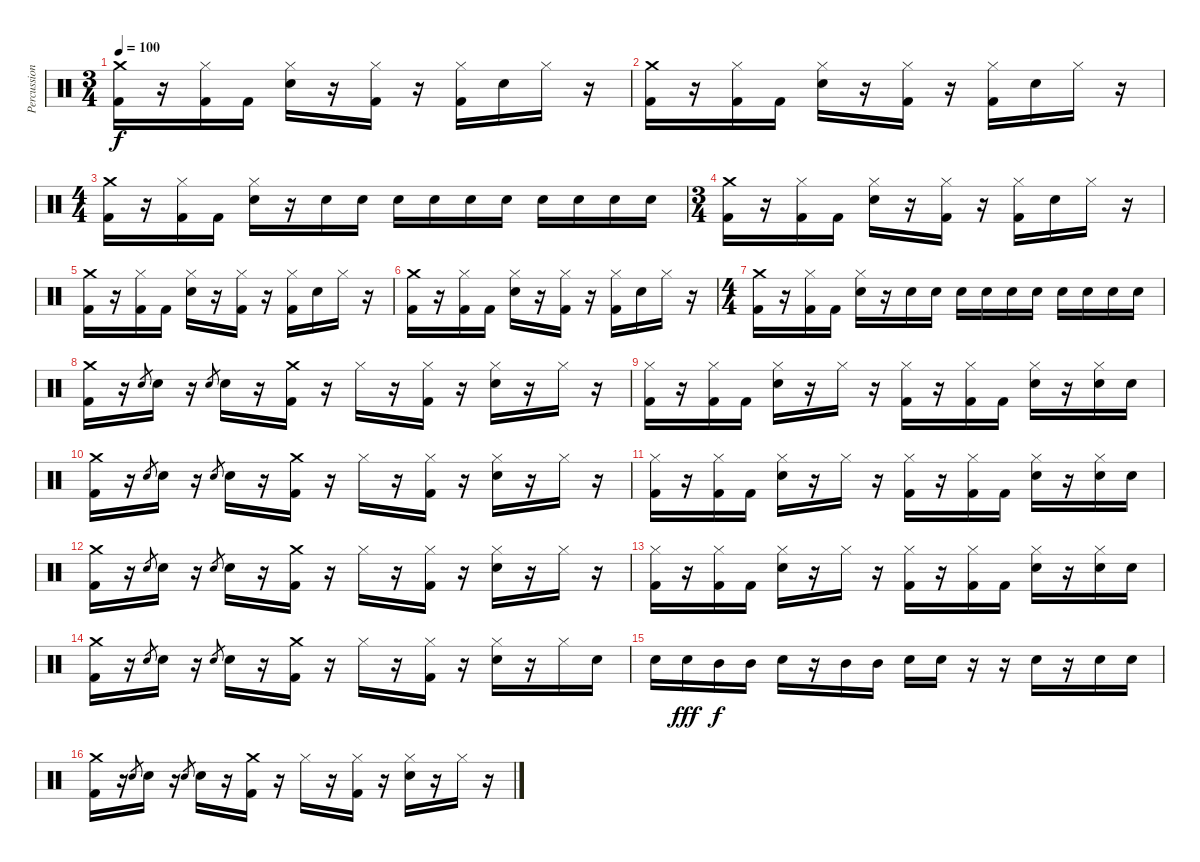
\track ("Percussion" "Percussion") {instrument percussion}
\staff {score}
\articulation defaults
\ts (3 4)
\tempo 100
\clef neutral
\ks c
("Crash medium (hit)" "Kick (hit) 2").16{dy f} r.16 ("Hi-Hat (closed)" "Kick (hit) 2").16 "Kick (hit) 2".16 ("Hi-Hat (closed)" "Snare (hit) 2").16 r.16 ("Hi-Hat (closed)" "Kick (hit) 2").16 r.16 ("Hi-Hat (closed)" "Kick (hit) 2").16 "Snare (hit) 2".16 "Hi-Hat (closed)".16 r.16 |
("Crash medium (hit)" "Kick (hit) 2").16 r.16 ("Hi-Hat (closed)" "Kick (hit) 2").16 "Kick (hit) 2".16 ("Hi-Hat (closed)" "Snare (hit) 2").16 r.16 ("Hi-Hat (closed)" "Kick (hit) 2").16 r.16 ("Hi-Hat (closed)" "Kick (hit) 2").16 "Snare (hit) 2".16 "Hi-Hat (closed)".16 r.16 |
\ts (4 4)
("Crash medium (hit)" "Kick (hit) 2").16 r.16 ("Hi-Hat (closed)" "Kick (hit) 2").16 "Kick (hit) 2".16 ("Hi-Hat (closed)" "Snare (hit) 2").16 r.16 "Snare (hit) 2".16 "Snare (hit) 2".16 "Snare (hit) 2".16 "Snare (hit) 2".16 "Snare (hit) 2".16 "Snare (hit) 2".16 "Snare (hit) 2".16 "Snare (hit) 2".16 "Snare (hit) 2".16 "Snare (hit) 2".16 |
\ts (3 4)
("Crash medium (hit)" "Kick (hit) 2").16 r.16 ("Hi-Hat (closed)" "Kick (hit) 2").16 "Kick (hit) 2".16 ("Hi-Hat (closed)" "Snare (hit) 2").16 r.16 ("Hi-Hat (closed)" "Kick (hit) 2").16 r.16 ("Hi-Hat (closed)" "Kick (hit) 2").16 "Snare (hit) 2".16 "Hi-Hat (closed)".16 r.16 |
("Crash medium (hit)" "Kick (hit) 2").16 r.16 ("Hi-Hat (closed)" "Kick (hit) 2").16 "Kick (hit) 2".16 ("Hi-Hat (closed)" "Snare (hit) 2").16 r.16 ("Hi-Hat (closed)" "Kick (hit) 2").16 r.16 ("Hi-Hat (closed)" "Kick (hit) 2").16 "Snare (hit) 2".16 "Hi-Hat (closed)".16 r.16 |
("Crash medium (hit)" "Kick (hit) 2").16 r.16 ("Hi-Hat (closed)" "Kick (hit) 2").16 "Kick (hit) 2".16 ("Hi-Hat (closed)" "Snare (hit) 2").16 r.16 ("Hi-Hat (closed)" "Kick (hit) 2").16 r.16 ("Hi-Hat (closed)" "Kick (hit) 2").16 "Snare (hit) 2".16 "Hi-Hat (closed)".16 r.16 |
\ts (4 4)
("Crash medium (hit)" "Kick (hit) 2").16 r.16 ("Hi-Hat (closed)" "Kick (hit) 2").16 "Kick (hit) 2".16 ("Hi-Hat (closed)" "Snare (hit) 2").16 r.16 "Snare (hit) 2".16 "Snare (hit) 2".16 "Snare (hit) 2".16 "Snare (hit) 2".16 "Snare (hit) 2".16 "Snare (hit) 2".16 "Snare (hit) 2".16 "Snare (hit) 2".16 "Snare (hit) 2".16 "Snare (hit) 2".16 |
("Crash medium (hit)" "Kick (hit) 2").16 r.16 "Snare (hit) 2".8{gr} "Snare (hit) 2".16 r.16 "Snare (hit) 2".8{gr} "Snare (hit) 2".16 r.16 ("Crash medium (hit)" "Kick (hit) 2").16 r.16 "Hi-Hat (closed)".16 r.16 ("Hi-Hat (closed)" "Kick (hit) 2").16 r.16 ("Hi-Hat (closed)" "Snare (hit) 2").16 r.16 "Hi-Hat (closed)".16 r.16 |
("Hi-Hat (closed)" "Kick (hit) 2").16 r.16 ("Hi-Hat (closed)" "Kick (hit) 2").16 "Kick (hit) 2".16 ("Hi-Hat (closed)" "Snare (hit) 2").16 r.16 "Hi-Hat (closed)".16 r.16 ("Hi-Hat (closed)" "Kick (hit) 2").16 r.16 ("Hi-Hat (closed)" "Kick (hit) 2").16 "Kick (hit) 2".16 ("Hi-Hat (closed)" "Snare (hit) 2").16 r.16 ("Hi-Hat (closed)" "Snare (hit) 2").16 "Snare (hit) 2".16 |
("Crash medium (hit)" "Kick (hit) 2").16 r.16 "Snare (hit) 2".8{gr} "Snare (hit) 2".16 r.16 "Snare (hit) 2".8{gr} "Snare (hit) 2".16 r.16 ("Crash medium (hit)" "Kick (hit) 2").16 r.16 "Hi-Hat (closed)".16 r.16 ("Hi-Hat (closed)" "Kick (hit) 2").16 r.16 ("Hi-Hat (closed)" "Snare (hit) 2").16 r.16 "Hi-Hat (closed)".16 r.16 |
("Hi-Hat (closed)" "Kick (hit) 2").16 r.16 ("Hi-Hat (closed)" "Kick (hit) 2").16 "Kick (hit) 2".16 ("Hi-Hat (closed)" "Snare (hit) 2").16 r.16 "Hi-Hat (closed)".16 r.16 ("Hi-Hat (closed)" "Kick (hit) 2").16 r.16 ("Hi-Hat (closed)" "Kick (hit) 2").16 "Kick (hit) 2".16 ("Hi-Hat (closed)" "Snare (hit) 2").16 r.16 ("Hi-Hat (closed)" "Snare (hit) 2").16 "Snare (hit) 2".16 |
("Crash medium (hit)" "Kick (hit) 2").16 r.16 "Snare (hit) 2".8{gr} "Snare (hit) 2".16 r.16 "Snare (hit) 2".8{gr} "Snare (hit) 2".16 r.16 ("Crash medium (hit)" "Kick (hit) 2").16 r.16 "Hi-Hat (closed)".16 r.16 ("Hi-Hat (closed)" "Kick (hit) 2").16 r.16 ("Hi-Hat (closed)" "Snare (hit) 2").16 r.16 "Hi-Hat (closed)".16 r.16 |
("Hi-Hat (closed)" "Kick (hit) 2").16 r.16 ("Hi-Hat (closed)" "Kick (hit) 2").16 "Kick (hit) 2".16 ("Hi-Hat (closed)" "Snare (hit) 2").16 r.16 "Hi-Hat (closed)".16 r.16 ("Hi-Hat (closed)" "Kick (hit) 2").16 r.16 ("Hi-Hat (closed)" "Kick (hit) 2").16 "Kick (hit) 2".16 ("Hi-Hat (closed)" "Snare (hit) 2").16 r.16 ("Hi-Hat (closed)" "Snare (hit) 2").16 "Snare (hit) 2".16 |
("Crash medium (hit)" "Kick (hit) 2").16 r.16 "Snare (hit) 2".8{gr} "Snare (hit) 2".16 r.16 "Snare (hit) 2".8{gr} "Snare (hit) 2".16 r.16 ("Crash medium (hit)" "Kick (hit) 2").16 r.16 "Hi-Hat (closed)".16 r.16 ("Hi-Hat (closed)" "Kick (hit) 2").16 r.16 ("Hi-Hat (closed)" "Snare (hit) 2").16 r.16 "Hi-Hat (closed)".16 "Snare (hit) 2".16 |
"Snare (hit) 2".16 "Snare (hit) 2".16{dy fff} "Mid Tom (hit)".16{dy f} "Mid Tom (hit)".16 "Snare (hit) 2".16 r.16 "Mid Tom (hit)".16 "Mid Tom (hit)".16 "Snare (hit) 2".16 "Snare (hit) 2".16 r.16 r.16 "Snare (hit) 2".16 r.16 "Snare (hit) 2".16 "Snare (hit) 2".16 |
("Crash medium (hit)" "Kick (hit) 2").16 r.16 "Snare (hit) 2".8{gr} "Snare (hit) 2".16 r.16 "Snare (hit) 2".8{gr} "Snare (hit) 2".16 r.16 ("Crash medium (hit)" "Kick (hit) 2").16 r.16 "Hi-Hat (closed)".16 r.16 ("Hi-Hat (closed)" "Kick (hit) 2").16 r.16 ("Hi-Hat (closed)" "Snare (hit) 2").16 r.16 "Hi-Hat (closed)".16 r.16
